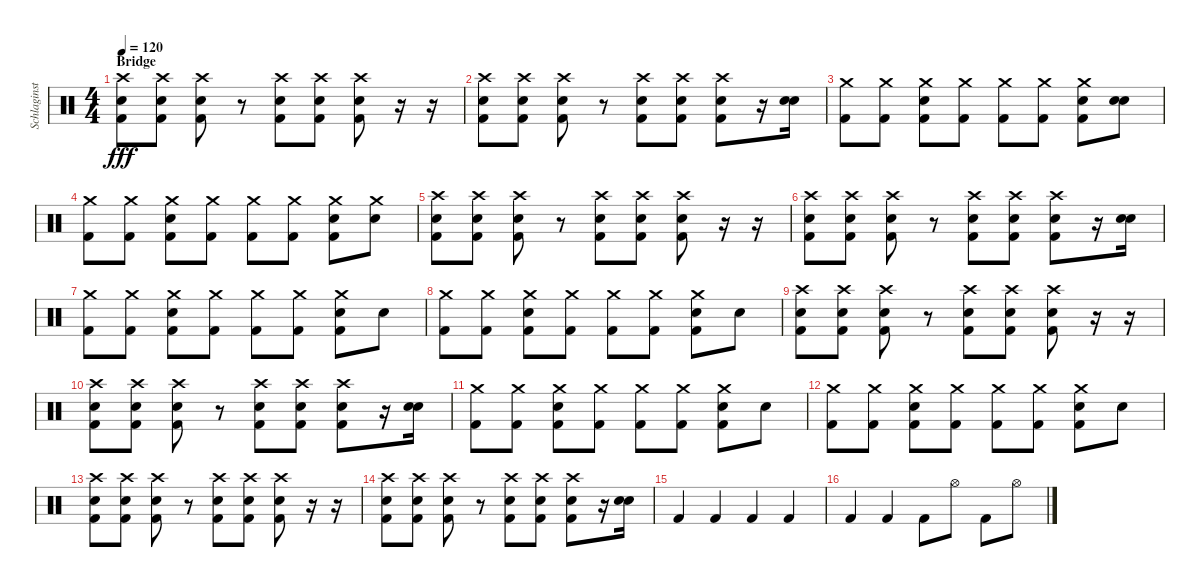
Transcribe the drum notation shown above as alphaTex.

\track ("Schlaginstrumente - Auswahl" "Schlaginst") {instrument percussion}
\staff {score}
\articulation defaults
\ts (4 4)
\section ("" "Bridge")
\tempo 120
\clef neutral
\ks c
("Crash high (hit)" "Snare (hit) 2" "Kick (hit) 2").8{dy fff} ("Crash high (hit)" "Snare (hit) 2" "Kick (hit) 2").8 ("Crash high (hit)" "Snare (hit) 2" "Kick (hit) 2").8 r.8 ("Crash high (hit)" "Snare (hit) 2" "Kick (hit) 2").8 ("Crash high (hit)" "Snare (hit) 2" "Kick (hit) 2").8 ("Crash high (hit)" "Snare (hit) 2" "Kick (hit) 2").8 r.16 r.16 |
("Crash high (hit)" "Snare (hit) 2" "Kick (hit) 2").8 ("Crash high (hit)" "Snare (hit) 2" "Kick (hit) 2").8 ("Crash high (hit)" "Snare (hit) 2" "Kick (hit) 2").8 r.8 ("Crash high (hit)" "Snare (hit) 2" "Kick (hit) 2").8 ("Crash high (hit)" "Snare (hit) 2" "Kick (hit) 2").8 ("Crash high (hit)" "Snare (hit) 2" "Kick (hit) 2").8 r.16 ("Snare (hit) 2" "Electric Snare (hit)").16 |
("Crash medium (hit)" "Kick (hit) 2").8 ("Crash medium (hit)" "Kick (hit) 2").8 ("Crash medium (hit)" "Snare (hit) 2" "Kick (hit) 2").8 ("Crash medium (hit)" "Kick (hit) 2").8 ("Crash medium (hit)" "Kick (hit) 2").8 ("Crash medium (hit)" "Kick (hit) 2").8 ("Crash medium (hit)" "Snare (hit) 2" "Kick (hit) 2").8 ("Snare (hit) 2" "Electric Snare (hit)").8 |
("Crash medium (hit)" "Kick (hit) 2").8 ("Crash medium (hit)" "Kick (hit) 2").8 ("Crash medium (hit)" "Snare (hit) 2" "Kick (hit) 2").8 ("Crash medium (hit)" "Kick (hit) 2").8 ("Crash medium (hit)" "Kick (hit) 2").8 ("Crash medium (hit)" "Kick (hit) 2").8 ("Crash medium (hit)" "Snare (hit) 2" "Kick (hit) 2").8 ("Crash medium (hit)" "Snare (hit) 2").8 |
("Crash high (hit)" "Snare (hit) 2" "Kick (hit) 2").8 ("Crash high (hit)" "Snare (hit) 2" "Kick (hit) 2").8 ("Crash high (hit)" "Snare (hit) 2" "Kick (hit) 2").8 r.8 ("Crash high (hit)" "Snare (hit) 2" "Kick (hit) 2").8 ("Crash high (hit)" "Snare (hit) 2" "Kick (hit) 2").8 ("Crash high (hit)" "Snare (hit) 2" "Kick (hit) 2").8 r.16 r.16 |
("Crash high (hit)" "Snare (hit) 2" "Kick (hit) 2").8 ("Crash high (hit)" "Snare (hit) 2" "Kick (hit) 2").8 ("Crash high (hit)" "Snare (hit) 2" "Kick (hit) 2").8 r.8 ("Crash high (hit)" "Snare (hit) 2" "Kick (hit) 2").8 ("Crash high (hit)" "Snare (hit) 2" "Kick (hit) 2").8 ("Crash high (hit)" "Snare (hit) 2" "Kick (hit) 2").8 r.16 ("Snare (hit) 2" "Electric Snare (hit)").16 |
("Crash medium (hit)" "Kick (hit) 2").8 ("Crash medium (hit)" "Kick (hit) 2").8 ("Crash medium (hit)" "Snare (hit) 2" "Kick (hit) 2").8 ("Crash medium (hit)" "Kick (hit) 2").8 ("Crash medium (hit)" "Kick (hit) 2").8 ("Crash medium (hit)" "Kick (hit) 2").8 ("Crash medium (hit)" "Snare (hit) 2" "Kick (hit) 2").8 "Snare (hit) 2".8 |
("Crash medium (hit)" "Kick (hit) 2").8 ("Crash medium (hit)" "Kick (hit) 2").8 ("Crash medium (hit)" "Snare (hit) 2" "Kick (hit) 2").8 ("Crash medium (hit)" "Kick (hit) 2").8 ("Crash medium (hit)" "Kick (hit) 2").8 ("Crash medium (hit)" "Kick (hit) 2").8 ("Crash medium (hit)" "Snare (hit) 2" "Kick (hit) 2").8 "Snare (hit) 2".8 |
("Crash high (hit)" "Snare (hit) 2" "Kick (hit) 2").8 ("Crash high (hit)" "Snare (hit) 2" "Kick (hit) 2").8 ("Crash high (hit)" "Snare (hit) 2" "Kick (hit) 2").8 r.8 ("Crash high (hit)" "Snare (hit) 2" "Kick (hit) 2").8 ("Crash high (hit)" "Snare (hit) 2" "Kick (hit) 2").8 ("Crash high (hit)" "Snare (hit) 2" "Kick (hit) 2").8 r.16 r.16 |
("Crash high (hit)" "Snare (hit) 2" "Kick (hit) 2").8 ("Crash high (hit)" "Snare (hit) 2" "Kick (hit) 2").8 ("Crash high (hit)" "Snare (hit) 2" "Kick (hit) 2").8 r.8 ("Crash high (hit)" "Snare (hit) 2" "Kick (hit) 2").8 ("Crash high (hit)" "Snare (hit) 2" "Kick (hit) 2").8 ("Crash high (hit)" "Snare (hit) 2" "Kick (hit) 2").8 r.16 ("Snare (hit) 2" "Electric Snare (hit)").16 |
("Crash medium (hit)" "Kick (hit) 2").8 ("Crash medium (hit)" "Kick (hit) 2").8 ("Crash medium (hit)" "Snare (hit) 2" "Kick (hit) 2").8 ("Crash medium (hit)" "Kick (hit) 2").8 ("Crash medium (hit)" "Kick (hit) 2").8 ("Crash medium (hit)" "Kick (hit) 2").8 ("Crash medium (hit)" "Snare (hit) 2" "Kick (hit) 2").8 "Snare (hit) 2".8 |
("Crash medium (hit)" "Kick (hit) 2").8 ("Crash medium (hit)" "Kick (hit) 2").8 ("Crash medium (hit)" "Snare (hit) 2" "Kick (hit) 2").8 ("Crash medium (hit)" "Kick (hit) 2").8 ("Crash medium (hit)" "Kick (hit) 2").8 ("Crash medium (hit)" "Kick (hit) 2").8 ("Crash medium (hit)" "Snare (hit) 2" "Kick (hit) 2").8 "Snare (hit) 2".8 |
("Crash high (hit)" "Snare (hit) 2" "Kick (hit) 2").8 ("Crash high (hit)" "Snare (hit) 2" "Kick (hit) 2").8 ("Crash high (hit)" "Snare (hit) 2" "Kick (hit) 2").8 r.8 ("Crash high (hit)" "Snare (hit) 2" "Kick (hit) 2").8 ("Crash high (hit)" "Snare (hit) 2" "Kick (hit) 2").8 ("Crash high (hit)" "Snare (hit) 2" "Kick (hit) 2").8 r.16 r.16 |
("Crash high (hit)" "Snare (hit) 2" "Kick (hit) 2").8 ("Crash high (hit)" "Snare (hit) 2" "Kick (hit) 2").8 ("Crash high (hit)" "Snare (hit) 2" "Kick (hit) 2").8 r.8 ("Crash high (hit)" "Snare (hit) 2" "Kick (hit) 2").8 ("Crash high (hit)" "Snare (hit) 2" "Kick (hit) 2").8 ("Crash high (hit)" "Snare (hit) 2" "Kick (hit) 2").8 r.16 ("Snare (hit) 2" "Electric Snare (hit)").16 |
"Kick (hit) 2".4 "Kick (hit) 2".4 "Kick (hit) 2".4 "Kick (hit) 2".4 |
"Kick (hit) 2".4 "Kick (hit) 2".4 "Kick (hit) 2".8 "Hi-Hat (open)".8 "Kick (hit) 2".8 "Hi-Hat (open)".8
